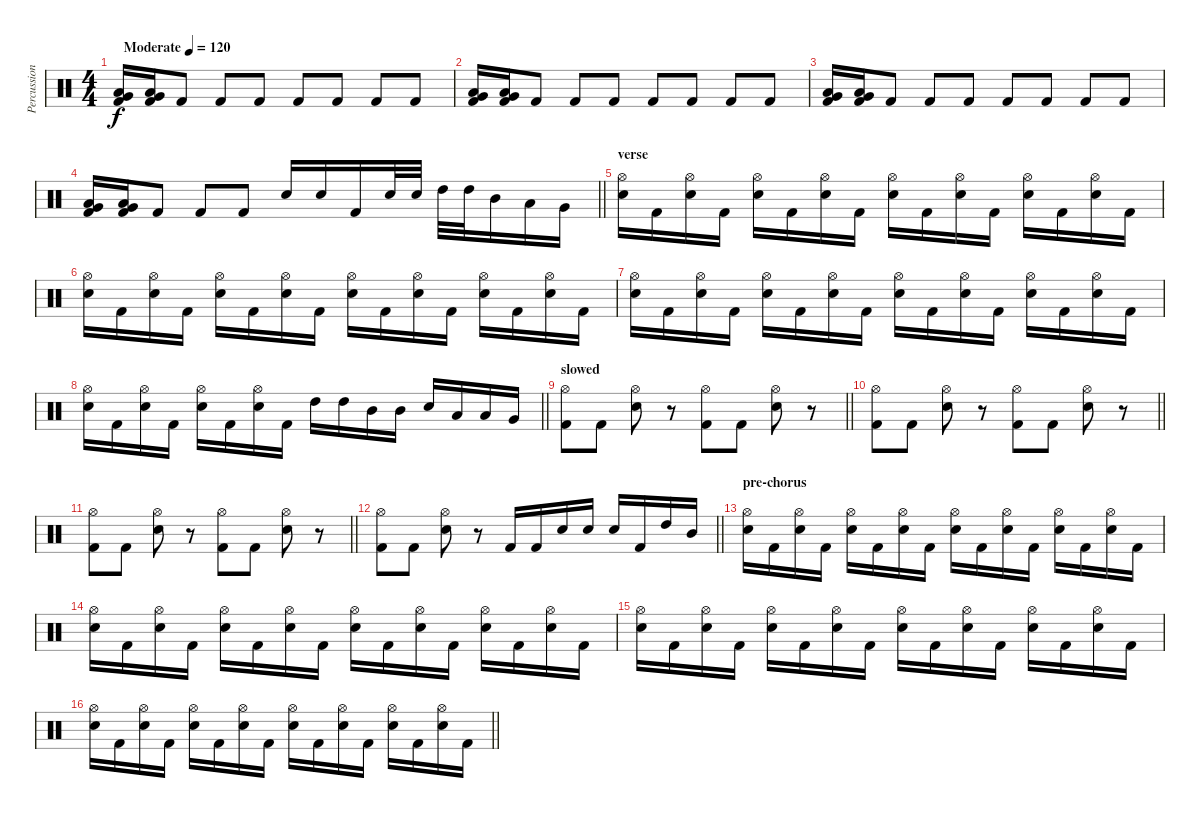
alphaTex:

\track ("Percussion" "Percussion") {instrument percussion}
\staff {score}
\articulation defaults
\ts (4 4)
\tempo (120 "Moderate")
\clef neutral
\ks c
("Kick (hit) 2" "Low Tom (hit)" "Very Low Tom (hit)").16{dy f} ("Kick (hit) 2" "Low Tom (hit)" "Very Low Tom (hit)").16 "Kick (hit) 2".8 "Kick (hit) 2".8 "Kick (hit) 2".8 "Kick (hit) 2".8 "Kick (hit) 2".8 "Kick (hit) 2".8 "Kick (hit) 2".8 |
("Kick (hit) 2" "Low Tom (hit)" "Very Low Tom (hit)").16 ("Kick (hit) 2" "Low Tom (hit)" "Very Low Tom (hit)").16 "Kick (hit) 2".8 "Kick (hit) 2".8 "Kick (hit) 2".8 "Kick (hit) 2".8 "Kick (hit) 2".8 "Kick (hit) 2".8 "Kick (hit) 2".8 |
("Kick (hit) 2" "Low Tom (hit)" "Very Low Tom (hit)").16 ("Kick (hit) 2" "Low Tom (hit)" "Very Low Tom (hit)").16 "Kick (hit) 2".8 "Kick (hit) 2".8 "Kick (hit) 2".8 "Kick (hit) 2".8 "Kick (hit) 2".8 "Kick (hit) 2".8 "Kick (hit) 2".8 |
\barLineRight lightlight
("Kick (hit) 2" "Low Tom (hit)" "Very Low Tom (hit)").16 ("Kick (hit) 2" "Low Tom (hit)" "Very Low Tom (hit)").16 "Kick (hit) 2".8 "Kick (hit) 2".8 "Kick (hit) 2".8 "Electric Snare (hit)".16 "Electric Snare (hit)".16 "Kick (hit) 2".16 "Electric Snare (hit)".32 "Electric Snare (hit)".32 "High Tom (hit)".32 "High Tom (hit)".32 "Mid Tom (hit)".16 "Low Tom (hit)".16 "Very Low Tom (hit)".16 |
\section ("" "verse")
("Electric Snare (hit)" "Hi-Hat (open)").16 "Kick (hit) 2".16 ("Electric Snare (hit)" "Hi-Hat (open)").16 "Kick (hit) 2".16 ("Electric Snare (hit)" "Hi-Hat (open)").16 "Kick (hit) 2".16 ("Electric Snare (hit)" "Hi-Hat (open)").16 "Kick (hit) 2".16 ("Electric Snare (hit)" "Hi-Hat (open)").16 "Kick (hit) 2".16 ("Electric Snare (hit)" "Hi-Hat (open)").16 "Kick (hit) 2".16 ("Electric Snare (hit)" "Hi-Hat (open)").16 "Kick (hit) 2".16 ("Electric Snare (hit)" "Hi-Hat (open)").16 "Kick (hit) 2".16 |
("Electric Snare (hit)" "Hi-Hat (open)").16 "Kick (hit) 2".16 ("Electric Snare (hit)" "Hi-Hat (open)").16 "Kick (hit) 2".16 ("Electric Snare (hit)" "Hi-Hat (open)").16 "Kick (hit) 2".16 ("Electric Snare (hit)" "Hi-Hat (open)").16 "Kick (hit) 2".16 ("Electric Snare (hit)" "Hi-Hat (open)").16 "Kick (hit) 2".16 ("Electric Snare (hit)" "Hi-Hat (open)").16 "Kick (hit) 2".16 ("Electric Snare (hit)" "Hi-Hat (open)").16 "Kick (hit) 2".16 ("Electric Snare (hit)" "Hi-Hat (open)").16 "Kick (hit) 2".16 |
("Electric Snare (hit)" "Hi-Hat (open)").16 "Kick (hit) 2".16 ("Electric Snare (hit)" "Hi-Hat (open)").16 "Kick (hit) 2".16 ("Electric Snare (hit)" "Hi-Hat (open)").16 "Kick (hit) 2".16 ("Electric Snare (hit)" "Hi-Hat (open)").16 "Kick (hit) 2".16 ("Electric Snare (hit)" "Hi-Hat (open)").16 "Kick (hit) 2".16 ("Electric Snare (hit)" "Hi-Hat (open)").16 "Kick (hit) 2".16 ("Electric Snare (hit)" "Hi-Hat (open)").16 "Kick (hit) 2".16 ("Electric Snare (hit)" "Hi-Hat (open)").16 "Kick (hit) 2".16 |
\barLineRight lightlight
("Electric Snare (hit)" "Hi-Hat (open)").16 "Kick (hit) 2".16 ("Electric Snare (hit)" "Hi-Hat (open)").16 "Kick (hit) 2".16 ("Electric Snare (hit)" "Hi-Hat (open)").16 "Kick (hit) 2".16 ("Electric Snare (hit)" "Hi-Hat (open)").16 "Kick (hit) 2".16 "High Tom (hit)".16 "High Tom (hit)".16 "Mid Tom (hit)".16 "Mid Tom (hit)".16 "Electric Snare (hit)".16 "Low Tom (hit)".16 "Low Tom (hit)".16 "Very Low Tom (hit)".16 |
\section ("" "slowed")
\barLineRight lightlight
("Hi-Hat (open)" "Kick (hit) 2").8 "Kick (hit) 2".8 ("Hi-Hat (open)" "Electric Snare (hit)").8 r.8 ("Hi-Hat (open)" "Kick (hit) 2").8 "Kick (hit) 2".8 ("Hi-Hat (open)" "Electric Snare (hit)").8 r.8 |
\barLineRight lightlight
("Hi-Hat (open)" "Kick (hit) 2").8 "Kick (hit) 2".8 ("Hi-Hat (open)" "Electric Snare (hit)").8 r.8 ("Hi-Hat (open)" "Kick (hit) 2").8 "Kick (hit) 2".8 ("Hi-Hat (open)" "Electric Snare (hit)").8 r.8 |
\section ("" "")
\barLineRight lightlight
("Hi-Hat (open)" "Kick (hit) 2").8 "Kick (hit) 2".8 ("Hi-Hat (open)" "Electric Snare (hit)").8 r.8 ("Hi-Hat (open)" "Kick (hit) 2").8 "Kick (hit) 2".8 ("Hi-Hat (open)" "Electric Snare (hit)").8 r.8 |
\barLineRight lightlight
("Hi-Hat (open)" "Kick (hit) 2").8 "Kick (hit) 2".8 ("Hi-Hat (open)" "Electric Snare (hit)").8 r.8 "Kick (hit) 2".16 "Kick (hit) 2".16 "Electric Snare (hit)".16 "Electric Snare (hit)".16 "Electric Snare (hit)".16 "Kick (hit) 2".16 "High Tom (hit)".16 "Mid Tom (hit)".16 |
\section ("" "pre-chorus")
("Electric Snare (hit)" "Hi-Hat (open)").16 "Kick (hit) 2".16 ("Electric Snare (hit)" "Hi-Hat (open)").16 "Kick (hit) 2".16 ("Electric Snare (hit)" "Hi-Hat (open)").16 "Kick (hit) 2".16 ("Electric Snare (hit)" "Hi-Hat (open)").16 "Kick (hit) 2".16 ("Electric Snare (hit)" "Hi-Hat (open)").16 "Kick (hit) 2".16 ("Electric Snare (hit)" "Hi-Hat (open)").16 "Kick (hit) 2".16 ("Electric Snare (hit)" "Hi-Hat (open)").16 "Kick (hit) 2".16 ("Electric Snare (hit)" "Hi-Hat (open)").16 "Kick (hit) 2".16 |
("Electric Snare (hit)" "Hi-Hat (open)").16 "Kick (hit) 2".16 ("Electric Snare (hit)" "Hi-Hat (open)").16 "Kick (hit) 2".16 ("Electric Snare (hit)" "Hi-Hat (open)").16 "Kick (hit) 2".16 ("Electric Snare (hit)" "Hi-Hat (open)").16 "Kick (hit) 2".16 ("Electric Snare (hit)" "Hi-Hat (open)").16 "Kick (hit) 2".16 ("Electric Snare (hit)" "Hi-Hat (open)").16 "Kick (hit) 2".16 ("Electric Snare (hit)" "Hi-Hat (open)").16 "Kick (hit) 2".16 ("Electric Snare (hit)" "Hi-Hat (open)").16 "Kick (hit) 2".16 |
("Electric Snare (hit)" "Hi-Hat (open)").16 "Kick (hit) 2".16 ("Electric Snare (hit)" "Hi-Hat (open)").16 "Kick (hit) 2".16 ("Electric Snare (hit)" "Hi-Hat (open)").16 "Kick (hit) 2".16 ("Electric Snare (hit)" "Hi-Hat (open)").16 "Kick (hit) 2".16 ("Electric Snare (hit)" "Hi-Hat (open)").16 "Kick (hit) 2".16 ("Electric Snare (hit)" "Hi-Hat (open)").16 "Kick (hit) 2".16 ("Electric Snare (hit)" "Hi-Hat (open)").16 "Kick (hit) 2".16 ("Electric Snare (hit)" "Hi-Hat (open)").16 "Kick (hit) 2".16 |
\barLineRight lightlight
("Electric Snare (hit)" "Hi-Hat (open)").16 "Kick (hit) 2".16 ("Electric Snare (hit)" "Hi-Hat (open)").16 "Kick (hit) 2".16 ("Electric Snare (hit)" "Hi-Hat (open)").16 "Kick (hit) 2".16 ("Electric Snare (hit)" "Hi-Hat (open)").16 "Kick (hit) 2".16 ("Electric Snare (hit)" "Hi-Hat (open)").16 "Kick (hit) 2".16 ("Electric Snare (hit)" "Hi-Hat (open)").16 "Kick (hit) 2".16 ("Electric Snare (hit)" "Hi-Hat (open)").16 "Kick (hit) 2".16 ("Electric Snare (hit)" "Hi-Hat (open)").16 "Kick (hit) 2".16
